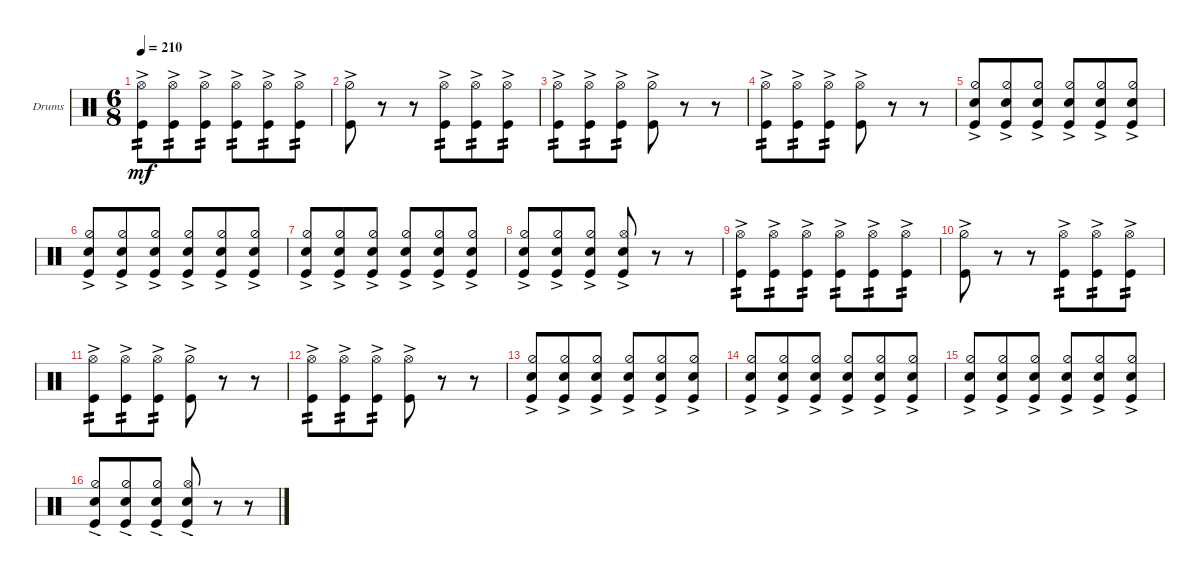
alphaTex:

\bracketExtendMode groupsimilarinstruments
\firstSystemTrackNameOrientation horizontal
\otherSystemsTrackNameOrientation horizontal
\track ("Drumkit" "Drums") {instrument percussion}
\staff {score}
\articulation defaults
\ts (6 8)
\tempo 210
\clef neutral
\ks c
("Kick (hit)"{ac} "Hi-Hat (open)"{ac}).8{tp 2 dy mf} ("Kick (hit)"{ac} "Hi-Hat (open)"{ac}).8{tp 2} ("Kick (hit)"{ac} "Hi-Hat (open)"{ac}).8{tp 2} ("Kick (hit)"{ac} "Hi-Hat (open)"{ac}).8{tp 2} ("Kick (hit)"{ac} "Hi-Hat (open)"{ac}).8{tp 2} ("Kick (hit)"{ac} "Hi-Hat (open)"{ac}).8{tp 2} |
("Kick (hit)"{ac} "Hi-Hat (half)"{ac}).8 r.8 r.8 ("Kick (hit)"{ac} "Hi-Hat (open)"{ac}).8{tp 2} ("Kick (hit)"{ac} "Hi-Hat (open)"{ac}).8{tp 2} ("Kick (hit)"{ac} "Hi-Hat (open)"{ac}).8{tp 2} |
("Kick (hit)"{ac} "Hi-Hat (open)"{ac}).8{tp 2} ("Kick (hit)"{ac} "Hi-Hat (open)"{ac}).8{tp 2} ("Kick (hit)"{ac} "Hi-Hat (open)"{ac}).8{tp 2} ("Kick (hit)"{ac} "Hi-Hat (half)"{ac}).8 r.8 r.8 |
("Kick (hit)"{ac} "Hi-Hat (open)"{ac}).8{tp 2} ("Kick (hit)"{ac} "Hi-Hat (open)"{ac}).8{tp 2} ("Kick (hit)"{ac} "Hi-Hat (open)"{ac}).8{tp 2} ("Kick (hit)"{ac} "Hi-Hat (open)"{ac}).8 r.8 r.8 |
("Snare (hit) 2"{ac} "Hi-Hat (half)"{ac} "Kick (hit)"{ac}).8 ("Snare (hit) 2"{ac} "Hi-Hat (half)"{ac} "Kick (hit)"{ac}).8 ("Snare (hit) 2"{ac} "Hi-Hat (half)"{ac} "Kick (hit)"{ac}).8 ("Snare (hit) 2"{ac} "Hi-Hat (half)"{ac} "Kick (hit)"{ac}).8 ("Snare (hit) 2"{ac} "Hi-Hat (half)"{ac} "Kick (hit)"{ac}).8 ("Snare (hit) 2"{ac} "Hi-Hat (half)"{ac} "Kick (hit)"{ac}).8 |
("Snare (hit) 2"{ac} "Hi-Hat (half)"{ac} "Kick (hit)"{ac}).8 ("Snare (hit) 2"{ac} "Hi-Hat (half)"{ac} "Kick (hit)"{ac}).8 ("Snare (hit) 2"{ac} "Hi-Hat (half)"{ac} "Kick (hit)"{ac}).8 ("Snare (hit) 2"{ac} "Hi-Hat (half)"{ac} "Kick (hit)"{ac}).8 ("Snare (hit) 2"{ac} "Hi-Hat (half)"{ac} "Kick (hit)"{ac}).8 ("Snare (hit) 2"{ac} "Hi-Hat (half)"{ac} "Kick (hit)"{ac}).8 |
("Snare (hit) 2"{ac} "Hi-Hat (half)"{ac} "Kick (hit)"{ac}).8 ("Snare (hit) 2"{ac} "Hi-Hat (half)"{ac} "Kick (hit)"{ac}).8 ("Snare (hit) 2"{ac} "Hi-Hat (half)"{ac} "Kick (hit)"{ac}).8 ("Snare (hit) 2"{ac} "Hi-Hat (half)"{ac} "Kick (hit)"{ac}).8 ("Snare (hit) 2"{ac} "Hi-Hat (half)"{ac} "Kick (hit)"{ac}).8 ("Snare (hit) 2"{ac} "Hi-Hat (half)"{ac} "Kick (hit)"{ac}).8 |
("Snare (hit) 2"{ac} "Hi-Hat (half)"{ac} "Kick (hit)"{ac}).8 ("Snare (hit) 2"{ac} "Hi-Hat (half)"{ac} "Kick (hit)"{ac}).8 ("Snare (hit) 2"{ac} "Hi-Hat (half)"{ac} "Kick (hit)"{ac}).8 ("Snare (hit) 2"{ac} "Hi-Hat (open)"{ac} "Kick (hit)"{ac}).8 r.8 r.8 |
("Kick (hit)"{ac} "Hi-Hat (open)"{ac}).8{tp 2} ("Kick (hit)"{ac} "Hi-Hat (open)"{ac}).8{tp 2} ("Kick (hit)"{ac} "Hi-Hat (open)"{ac}).8{tp 2} ("Kick (hit)"{ac} "Hi-Hat (open)"{ac}).8{tp 2} ("Kick (hit)"{ac} "Hi-Hat (open)"{ac}).8{tp 2} ("Kick (hit)"{ac} "Hi-Hat (open)"{ac}).8{tp 2} |
("Kick (hit)"{ac} "Hi-Hat (half)"{ac}).8 r.8 r.8 ("Kick (hit)"{ac} "Hi-Hat (open)"{ac}).8{tp 2} ("Kick (hit)"{ac} "Hi-Hat (open)"{ac}).8{tp 2} ("Kick (hit)"{ac} "Hi-Hat (open)"{ac}).8{tp 2} |
("Kick (hit)"{ac} "Hi-Hat (open)"{ac}).8{tp 2} ("Kick (hit)"{ac} "Hi-Hat (open)"{ac}).8{tp 2} ("Kick (hit)"{ac} "Hi-Hat (open)"{ac}).8{tp 2} ("Kick (hit)"{ac} "Hi-Hat (half)"{ac}).8 r.8 r.8 |
("Kick (hit)"{ac} "Hi-Hat (open)"{ac}).8{tp 2} ("Kick (hit)"{ac} "Hi-Hat (open)"{ac}).8{tp 2} ("Kick (hit)"{ac} "Hi-Hat (open)"{ac}).8{tp 2} ("Kick (hit)"{ac} "Hi-Hat (open)"{ac}).8 r.8 r.8 |
("Snare (hit) 2"{ac} "Hi-Hat (half)"{ac} "Kick (hit)"{ac}).8 ("Snare (hit) 2"{ac} "Hi-Hat (half)"{ac} "Kick (hit)"{ac}).8 ("Snare (hit) 2"{ac} "Hi-Hat (half)"{ac} "Kick (hit)"{ac}).8 ("Snare (hit) 2"{ac} "Hi-Hat (half)"{ac} "Kick (hit)"{ac}).8 ("Snare (hit) 2"{ac} "Hi-Hat (half)"{ac} "Kick (hit)"{ac}).8 ("Snare (hit) 2"{ac} "Hi-Hat (half)"{ac} "Kick (hit)"{ac}).8 |
("Snare (hit) 2"{ac} "Hi-Hat (half)"{ac} "Kick (hit)"{ac}).8 ("Snare (hit) 2"{ac} "Hi-Hat (half)"{ac} "Kick (hit)"{ac}).8 ("Snare (hit) 2"{ac} "Hi-Hat (half)"{ac} "Kick (hit)"{ac}).8 ("Snare (hit) 2"{ac} "Hi-Hat (half)"{ac} "Kick (hit)"{ac}).8 ("Snare (hit) 2"{ac} "Hi-Hat (half)"{ac} "Kick (hit)"{ac}).8 ("Snare (hit) 2"{ac} "Hi-Hat (half)"{ac} "Kick (hit)"{ac}).8 |
("Snare (hit) 2"{ac} "Hi-Hat (half)"{ac} "Kick (hit)"{ac}).8 ("Snare (hit) 2"{ac} "Hi-Hat (half)"{ac} "Kick (hit)"{ac}).8 ("Snare (hit) 2"{ac} "Hi-Hat (half)"{ac} "Kick (hit)"{ac}).8 ("Snare (hit) 2"{ac} "Hi-Hat (half)"{ac} "Kick (hit)"{ac}).8 ("Snare (hit) 2"{ac} "Hi-Hat (half)"{ac} "Kick (hit)"{ac}).8 ("Snare (hit) 2"{ac} "Hi-Hat (half)"{ac} "Kick (hit)"{ac}).8 |
("Snare (hit) 2"{ac} "Hi-Hat (half)"{ac} "Kick (hit)"{ac}).8 ("Snare (hit) 2"{ac} "Hi-Hat (half)"{ac} "Kick (hit)"{ac}).8 ("Snare (hit) 2"{ac} "Hi-Hat (half)"{ac} "Kick (hit)"{ac}).8 ("Snare (hit) 2"{ac} "Hi-Hat (open)"{ac} "Kick (hit)"{ac}).8 r.8 r.8
